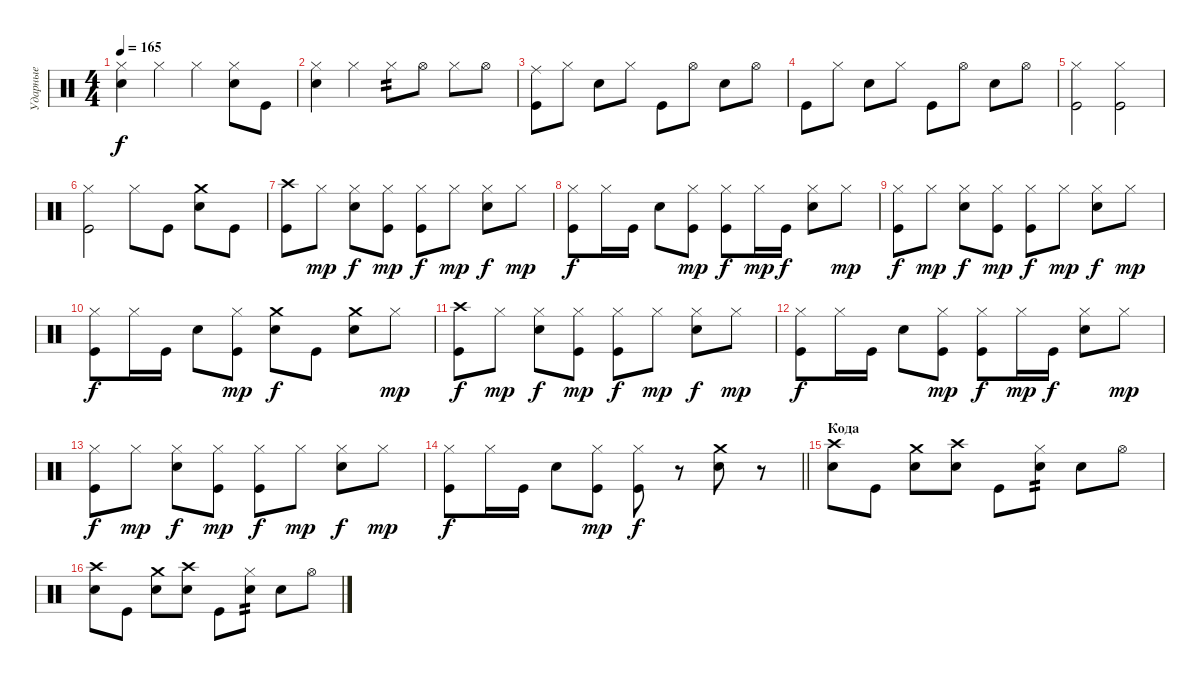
\track ("Ударные" "Ударные") {instrument percussion}
\staff {score}
\articulation defaults
\ts (4 4)
\tempo 165
\clef neutral
\ks c
("Hi-Hat (closed)" "Snare (hit) 2").4{dy f} "Hi-Hat (closed)".4 "Hi-Hat (closed)".4 ("Hi-Hat (closed)" "Snare (hit) 2").8 "Kick (hit)".8 |
("Hi-Hat (closed)" "Snare (hit) 2").4 "Hi-Hat (closed)".4 "Hi-Hat (closed)".8{tp 2} "Hi-Hat (open)".8 "Hi-Hat (closed)".8 "Hi-Hat (open)".8 |
("Ride (middle)" "Kick (hit)").8 "Hi-Hat (closed)".8 "Snare (hit) 2".8 "Hi-Hat (closed)".8 "Kick (hit)".8 "Hi-Hat (open)".8 "Snare (hit) 2".8 "Hi-Hat (open)".8 |
"Kick (hit)".8 "Hi-Hat (closed)".8 "Snare (hit) 2".8 "Hi-Hat (closed)".8 "Kick (hit)".8 "Hi-Hat (open)".8 "Snare (hit) 2".8 "Hi-Hat (open)".8 |
("Hi-Hat (closed)" "Kick (hit)").2 ("Hi-Hat (closed)" "Kick (hit)").2 |
("Hi-Hat (closed)" "Kick (hit)").2 "Hi-Hat (closed)".8 "Kick (hit)".8 ("Crash medium (hit)" "Snare (hit) 2").8 "Kick (hit)".8 |
("Crash high (hit)" "Kick (hit)").8 "Hi-Hat (closed)".8{dy mp} ("Hi-Hat (closed)" "Snare (hit) 2").8{dy f} ("Hi-Hat (closed)" "Kick (hit)").8{dy mp} ("Hi-Hat (closed)" "Kick (hit)").8{dy f} "Hi-Hat (closed)".8{dy mp} ("Hi-Hat (closed)" "Snare (hit) 2").8{dy f} "Hi-Hat (closed)".8{dy mp} |
("Hi-Hat (closed)" "Kick (hit)").8{dy f} "Hi-Hat (closed)".16 "Kick (hit)".16 "Snare (hit) 2".8 ("Hi-Hat (closed)" "Kick (hit)").8{dy mp} ("Hi-Hat (closed)" "Kick (hit)").8{dy f} "Hi-Hat (closed)".16{dy mp} "Kick (hit)".16{dy f} ("Hi-Hat (closed)" "Snare (hit) 2").8 "Hi-Hat (closed)".8{dy mp} |
("Hi-Hat (closed)" "Kick (hit)").8{dy f} "Hi-Hat (closed)".8{dy mp} ("Hi-Hat (closed)" "Snare (hit) 2").8{dy f} ("Hi-Hat (closed)" "Kick (hit)").8{dy mp} ("Hi-Hat (closed)" "Kick (hit)").8{dy f} "Hi-Hat (closed)".8{dy mp} ("Hi-Hat (closed)" "Snare (hit) 2").8{dy f} "Hi-Hat (closed)".8{dy mp} |
("Hi-Hat (closed)" "Kick (hit)").8{dy f} "Hi-Hat (closed)".16 "Kick (hit)".16 "Snare (hit) 2".8 ("Hi-Hat (closed)" "Kick (hit)").8{dy mp} ("Crash medium (hit)" "Snare (hit) 2").8{dy f} "Kick (hit)".8 ("Crash medium (hit)" "Snare (hit) 2").8 "Hi-Hat (closed)".8{dy mp} |
("Crash high (hit)" "Kick (hit)").8{dy f} "Hi-Hat (closed)".8{dy mp} ("Hi-Hat (closed)" "Snare (hit) 2").8{dy f} ("Hi-Hat (closed)" "Kick (hit)").8{dy mp} ("Hi-Hat (closed)" "Kick (hit)").8{dy f} "Hi-Hat (closed)".8{dy mp} ("Hi-Hat (closed)" "Snare (hit) 2").8{dy f} "Hi-Hat (closed)".8{dy mp} |
("Hi-Hat (closed)" "Kick (hit)").8{dy f} "Hi-Hat (closed)".16 "Kick (hit)".16 "Snare (hit) 2".8 ("Hi-Hat (closed)" "Kick (hit)").8{dy mp} ("Hi-Hat (closed)" "Kick (hit)").8{dy f} "Hi-Hat (closed)".16{dy mp} "Kick (hit)".16{dy f} ("Hi-Hat (closed)" "Snare (hit) 2").8 "Hi-Hat (closed)".8{dy mp} |
("Hi-Hat (closed)" "Kick (hit)").8{dy f} "Hi-Hat (closed)".8{dy mp} ("Hi-Hat (closed)" "Snare (hit) 2").8{dy f} ("Hi-Hat (closed)" "Kick (hit)").8{dy mp} ("Hi-Hat (closed)" "Kick (hit)").8{dy f} "Hi-Hat (closed)".8{dy mp} ("Hi-Hat (closed)" "Snare (hit) 2").8{dy f} "Hi-Hat (closed)".8{dy mp} |
\barLineRight lightlight
("Hi-Hat (closed)" "Kick (hit)").8{dy f} "Hi-Hat (closed)".16 "Kick (hit)".16 "Snare (hit) 2".8 ("Hi-Hat (closed)" "Kick (hit)").8{dy mp} ("Hi-Hat (closed)" "Kick (hit)").8{dy f} r.8 ("Crash medium (hit)" "Snare (hit) 2").8 r.8 |
\section ("" "Кода")
("Crash high (hit)" "Snare (hit) 2").8 "Kick (hit)".8 ("Crash medium (hit)" "Snare (hit) 2").8 ("Crash high (hit)" "Snare (hit) 2").8 "Kick (hit)".8 ("Hi-Hat (closed)" "Snare (hit) 2").8{tp 2} "Snare (hit) 2".8 "Hi-Hat (open)".8 |
("Crash high (hit)" "Snare (hit) 2").8 "Kick (hit)".8 ("Crash medium (hit)" "Snare (hit) 2").8 ("Crash high (hit)" "Snare (hit) 2").8 "Kick (hit)".8 ("Hi-Hat (closed)" "Snare (hit) 2").8{tp 2} "Snare (hit) 2".8 "Hi-Hat (open)".8
